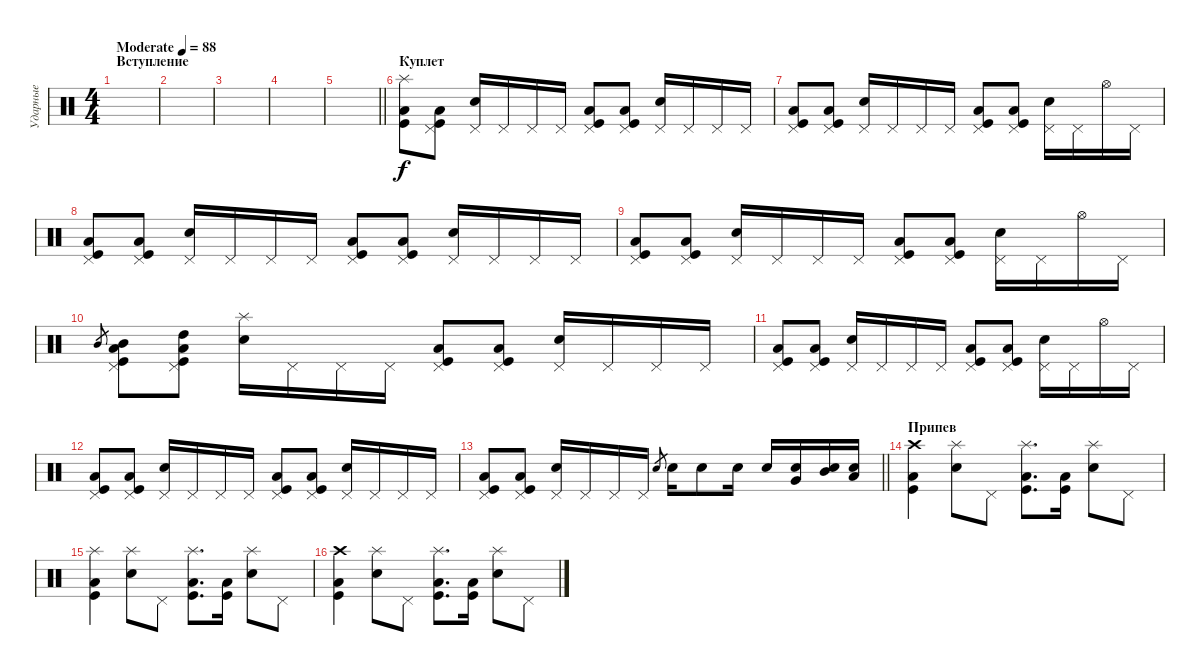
\track ("Ударные" "Ударные") {instrument percussion}
\staff {score}
\articulation defaults
\ts (4 4)
\section ("" "Вступление")
\tempo (88 "Moderate")
\clef neutral
\ks c
|
|
|
|
\barLineRight lightlight
|
\section ("" "Куплет")
("Splash (hit)" "Low Tom (hit)" "Kick (hit)").8 ("Pedal Hi-Hat (hit)" "Low Tom (hit)" "Kick (hit)").8 ("Pedal Hi-Hat (hit)" "Electric Snare (hit)").16 "Pedal Hi-Hat (hit)".16 "Pedal Hi-Hat (hit)".16 "Pedal Hi-Hat (hit)".16 ("Pedal Hi-Hat (hit)" "Low Tom (hit)" "Kick (hit)").8 ("Pedal Hi-Hat (hit)" "Low Tom (hit)" "Kick (hit)").8 ("Pedal Hi-Hat (hit)" "Electric Snare (hit)").16 "Pedal Hi-Hat (hit)".16 "Pedal Hi-Hat (hit)".16 "Pedal Hi-Hat (hit)".16 |
("Pedal Hi-Hat (hit)" "Low Tom (hit)" "Kick (hit)").8 ("Pedal Hi-Hat (hit)" "Low Tom (hit)" "Kick (hit)").8 ("Pedal Hi-Hat (hit)" "Electric Snare (hit)").16 "Pedal Hi-Hat (hit)".16 "Pedal Hi-Hat (hit)".16 "Pedal Hi-Hat (hit)".16 ("Pedal Hi-Hat (hit)" "Low Tom (hit)" "Kick (hit)").8 ("Pedal Hi-Hat (hit)" "Low Tom (hit)" "Kick (hit)").8 ("Pedal Hi-Hat (hit)" "Electric Snare (hit)").16 "Pedal Hi-Hat (hit)".16 "Hi-Hat (open)".16 "Pedal Hi-Hat (hit)".16 |
("Pedal Hi-Hat (hit)" "Low Tom (hit)" "Kick (hit)").8 ("Pedal Hi-Hat (hit)" "Low Tom (hit)" "Kick (hit)").8 ("Pedal Hi-Hat (hit)" "Electric Snare (hit)").16 "Pedal Hi-Hat (hit)".16 "Pedal Hi-Hat (hit)".16 "Pedal Hi-Hat (hit)".16 ("Pedal Hi-Hat (hit)" "Low Tom (hit)" "Kick (hit)").8 ("Pedal Hi-Hat (hit)" "Low Tom (hit)" "Kick (hit)").8 ("Pedal Hi-Hat (hit)" "Electric Snare (hit)").16 "Pedal Hi-Hat (hit)".16 "Pedal Hi-Hat (hit)".16 "Pedal Hi-Hat (hit)".16 |
("Pedal Hi-Hat (hit)" "Low Tom (hit)" "Kick (hit)").8 ("Pedal Hi-Hat (hit)" "Low Tom (hit)" "Kick (hit)").8 ("Pedal Hi-Hat (hit)" "Electric Snare (hit)").16 "Pedal Hi-Hat (hit)".16 "Pedal Hi-Hat (hit)".16 "Pedal Hi-Hat (hit)".16 ("Pedal Hi-Hat (hit)" "Low Tom (hit)" "Kick (hit)").8 ("Pedal Hi-Hat (hit)" "Low Tom (hit)" "Kick (hit)").8 ("Pedal Hi-Hat (hit)" "Electric Snare (hit)").16 "Pedal Hi-Hat (hit)".16 "Hi-Hat (open)".16 "Pedal Hi-Hat (hit)".16 |
"Mid Tom (hit)"{h}.8{gr} ("Pedal Hi-Hat (hit)" "Mid Tom (hit)" "Low Tom (hit)" "Kick (hit)").8 ("Pedal Hi-Hat (hit)" "High Tom (hit)" "Low Tom (hit)" "Kick (hit)").8 ("Splash (hit)" "Electric Snare (hit)").16 "Pedal Hi-Hat (hit)".16 "Pedal Hi-Hat (hit)".16 "Pedal Hi-Hat (hit)".16 ("Pedal Hi-Hat (hit)" "Low Tom (hit)" "Kick (hit)").8 ("Pedal Hi-Hat (hit)" "Low Tom (hit)" "Kick (hit)").8 ("Pedal Hi-Hat (hit)" "Electric Snare (hit)").16 "Pedal Hi-Hat (hit)".16 "Pedal Hi-Hat (hit)".16 "Pedal Hi-Hat (hit)".16 |
("Pedal Hi-Hat (hit)" "Low Tom (hit)" "Kick (hit)").8 ("Pedal Hi-Hat (hit)" "Low Tom (hit)" "Kick (hit)").8 ("Pedal Hi-Hat (hit)" "Electric Snare (hit)").16 "Pedal Hi-Hat (hit)".16 "Pedal Hi-Hat (hit)".16 "Pedal Hi-Hat (hit)".16 ("Pedal Hi-Hat (hit)" "Low Tom (hit)" "Kick (hit)").8 ("Pedal Hi-Hat (hit)" "Low Tom (hit)" "Kick (hit)").8 ("Pedal Hi-Hat (hit)" "Electric Snare (hit)").16 "Pedal Hi-Hat (hit)".16 "Hi-Hat (open)".16 "Pedal Hi-Hat (hit)".16 |
("Pedal Hi-Hat (hit)" "Low Tom (hit)" "Kick (hit)").8 ("Pedal Hi-Hat (hit)" "Low Tom (hit)" "Kick (hit)").8 ("Pedal Hi-Hat (hit)" "Electric Snare (hit)").16 "Pedal Hi-Hat (hit)".16 "Pedal Hi-Hat (hit)".16 "Pedal Hi-Hat (hit)".16 ("Pedal Hi-Hat (hit)" "Low Tom (hit)" "Kick (hit)").8 ("Pedal Hi-Hat (hit)" "Low Tom (hit)" "Kick (hit)").8 ("Pedal Hi-Hat (hit)" "Electric Snare (hit)").16 "Pedal Hi-Hat (hit)".16 "Pedal Hi-Hat (hit)".16 "Pedal Hi-Hat (hit)".16 |
\barLineRight lightlight
("Pedal Hi-Hat (hit)" "Low Tom (hit)" "Kick (hit)").8 ("Pedal Hi-Hat (hit)" "Low Tom (hit)" "Kick (hit)").8 ("Pedal Hi-Hat (hit)" "Electric Snare (hit)").16 "Pedal Hi-Hat (hit)".16 "Pedal Hi-Hat (hit)".16 "Pedal Hi-Hat (hit)".16 "Snare (hit) 2"{h}.8{gr} "Electric Snare (hit)".16 "Electric Snare (hit)".8 "Electric Snare (hit)".16 "Electric Snare (hit)".16 ("Very Low Tom (hit)" "Electric Snare (hit)").16 ("Mid Tom (hit)" "Electric Snare (hit)").16 ("Low Tom (hit)" "Electric Snare (hit)").16 |
\section ("" "Припев")
("Crash high (hit)" "Low Tom (hit)" "Kick (hit)").4 ("Splash (hit)" "Electric Snare (hit)").8 "Pedal Hi-Hat (hit)".8 ("Splash (hit)" "Low Tom (hit)" "Kick (hit)").8{d} ("Low Tom (hit)" "Kick (hit)").16 ("Splash (hit)" "Electric Snare (hit)").8 "Pedal Hi-Hat (hit)".8 |
("Splash (hit)" "Low Tom (hit)" "Kick (hit)").4 ("Splash (hit)" "Electric Snare (hit)").8 "Pedal Hi-Hat (hit)".8 ("Splash (hit)" "Low Tom (hit)" "Kick (hit)").8{d} ("Low Tom (hit)" "Kick (hit)").16 ("Splash (hit)" "Electric Snare (hit)").8 "Pedal Hi-Hat (hit)".8 |
("Crash high (hit)" "Low Tom (hit)" "Kick (hit)").4 ("Splash (hit)" "Electric Snare (hit)").8 "Pedal Hi-Hat (hit)".8 ("Splash (hit)" "Low Tom (hit)" "Kick (hit)").8{d} ("Low Tom (hit)" "Kick (hit)").16 ("Splash (hit)" "Electric Snare (hit)").8 "Pedal Hi-Hat (hit)".8
